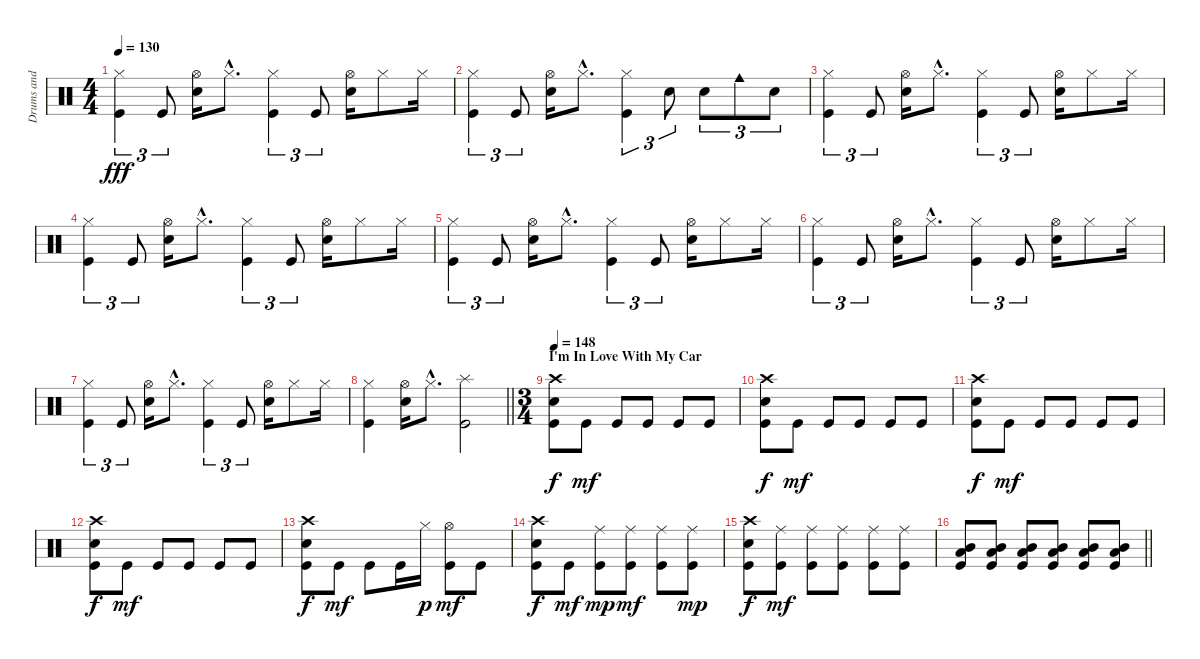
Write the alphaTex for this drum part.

\track ("Drums and percussion" "Drums and ") {instrument percussion}
\staff {score}
\articulation defaults
\ts (4 4)
\tempo 130
\clef neutral
\ks c
("Hi-Hat (closed)" "Kick (hit)").4{tu (3 2) dy fff} "Kick (hit)".8{tu (3 2)} ("Hi-Hat (open)" "Snare (hit) 2").16 "Hi-Hat (closed)"{hac}.8{d} ("Hi-Hat (closed)" "Kick (hit)").4{tu (3 2)} "Kick (hit)".8{tu (3 2)} ("Hi-Hat (open)" "Snare (hit) 2").16 "Hi-Hat (closed)".8 "Hi-Hat (closed)".16 |
("Hi-Hat (closed)" "Kick (hit)").4{tu (3 2)} "Kick (hit)".8{tu (3 2)} ("Hi-Hat (open)" "Snare (hit) 2").16 "Hi-Hat (closed)"{hac}.8{d} ("Hi-Hat (closed)" "Kick (hit)").4{tu (3 2)} "Electric Snare (hit)".8{tu (3 2)} "Snare (hit) 2".8{tu (3 2)} "Cowbell medium (hit)".8{tu (3 2)} "Snare (hit) 2".8{tu (3 2)} |
("Hi-Hat (closed)" "Kick (hit)").4{tu (3 2)} "Kick (hit)".8{tu (3 2)} ("Hi-Hat (open)" "Snare (hit) 2").16 "Hi-Hat (closed)"{hac}.8{d} ("Hi-Hat (closed)" "Kick (hit)").4{tu (3 2)} "Kick (hit)".8{tu (3 2)} ("Hi-Hat (open)" "Snare (hit) 2").16 "Hi-Hat (closed)".8 "Hi-Hat (closed)".16 |
("Hi-Hat (closed)" "Kick (hit)").4{tu (3 2)} "Kick (hit)".8{tu (3 2)} ("Hi-Hat (open)" "Snare (hit) 2").16 "Hi-Hat (closed)"{hac}.8{d} ("Hi-Hat (closed)" "Kick (hit)").4{tu (3 2)} "Kick (hit)".8{tu (3 2)} ("Hi-Hat (open)" "Snare (hit) 2").16 "Hi-Hat (closed)".8 "Hi-Hat (closed)".16 |
("Hi-Hat (closed)" "Kick (hit)").4{tu (3 2)} "Kick (hit)".8{tu (3 2)} ("Hi-Hat (open)" "Snare (hit) 2").16 "Hi-Hat (closed)"{hac}.8{d} ("Hi-Hat (closed)" "Kick (hit)").4{tu (3 2)} "Kick (hit)".8{tu (3 2)} ("Hi-Hat (open)" "Snare (hit) 2").16 "Hi-Hat (closed)".8 "Hi-Hat (closed)".16 |
("Hi-Hat (closed)" "Kick (hit)").4{tu (3 2)} "Kick (hit)".8{tu (3 2)} ("Hi-Hat (open)" "Snare (hit) 2").16 "Hi-Hat (closed)"{hac}.8{d} ("Hi-Hat (closed)" "Kick (hit)").4{tu (3 2)} "Kick (hit)".8{tu (3 2)} ("Hi-Hat (open)" "Snare (hit) 2").16 "Hi-Hat (closed)".8 "Hi-Hat (closed)".16 |
("Hi-Hat (closed)" "Kick (hit)").4{tu (3 2)} "Kick (hit)".8{tu (3 2)} ("Hi-Hat (open)" "Snare (hit) 2").16 "Hi-Hat (closed)"{hac}.8{d} ("Hi-Hat (closed)" "Kick (hit)").4{tu (3 2)} "Kick (hit)".8{tu (3 2)} ("Hi-Hat (open)" "Snare (hit) 2").16 "Hi-Hat (closed)".8 "Hi-Hat (closed)".16 |
\barLineRight lightlight
("Hi-Hat (closed)" "Kick (hit)").4 ("Hi-Hat (open)" "Snare (hit) 2").16 "Hi-Hat (closed)"{hac}.8{d} ("Splash (hit)" "Kick (hit)").2 |
\ts (3 4)
\section ("" "I'm In Love With My Car")
\tempo 148
("Crash high (hit)" "Electric Snare (hit)" "Kick (hit)").8{dy f volume 13} "Kick (hit)".8{dy mf} "Kick (hit)".8 "Kick (hit)".8 "Kick (hit)".8 "Kick (hit)".8 |
("Crash high (hit)" "Electric Snare (hit)" "Kick (hit)").8{dy f} "Kick (hit)".8{dy mf} "Kick (hit)".8 "Kick (hit)".8 "Kick (hit)".8 "Kick (hit)".8 |
("Crash high (hit)" "Electric Snare (hit)" "Kick (hit)").8{dy f} "Kick (hit)".8{dy mf} "Kick (hit)".8 "Kick (hit)".8 "Kick (hit)".8 "Kick (hit)".8 |
("Crash high (hit)" "Electric Snare (hit)" "Kick (hit)").8{dy f} "Kick (hit)".8{dy mf} "Kick (hit)".8 "Kick (hit)".8 "Kick (hit)".8 "Kick (hit)".8 |
("Kick (hit)" "Electric Snare (hit)" "Crash high (hit)").8{dy f} "Kick (hit)".8{dy mf} "Kick (hit)".8 "Kick (hit)".16 "Hi-Hat (closed)".16{dy p} ("Hi-Hat (open)" "Kick (hit)").8{dy mf} "Kick (hit)".8 |
("Kick (hit)" "Electric Snare (hit)" "Crash high (hit)").8{dy f} "Kick (hit)".8{dy mf} ("Kick (hit)" "Ride (middle)").8{dy mp} ("Ride (middle)" "Kick (hit)").8{dy mf} ("Ride (middle)" "Kick (hit)").8 ("Kick (hit)" "Ride (middle)").8{dy mp} |
("Kick (hit)" "Electric Snare (hit)" "Crash high (hit)").8{dy f} ("Ride (middle)" "Kick (hit)").8{dy mf} ("Ride (middle)" "Kick (hit)").8 ("Ride (middle)" "Kick (hit)").8 ("Ride (middle)" "Kick (hit)").8 ("Ride (middle)" "Kick (hit)").8 |
\barLineRight lightlight
("Low Tom (hit)" "Mid Tom (hit)" "Kick (hit)").8 ("Low Tom (hit)" "Mid Tom (hit)" "Kick (hit)").8 ("Low Tom (hit)" "Mid Tom (hit)" "Kick (hit)").8 ("Low Tom (hit)" "Mid Tom (hit)" "Kick (hit)").8 ("Low Tom (hit)" "Mid Tom (hit)" "Kick (hit)").8 ("Low Tom (hit)" "Mid Tom (hit)" "Kick (hit)").8
